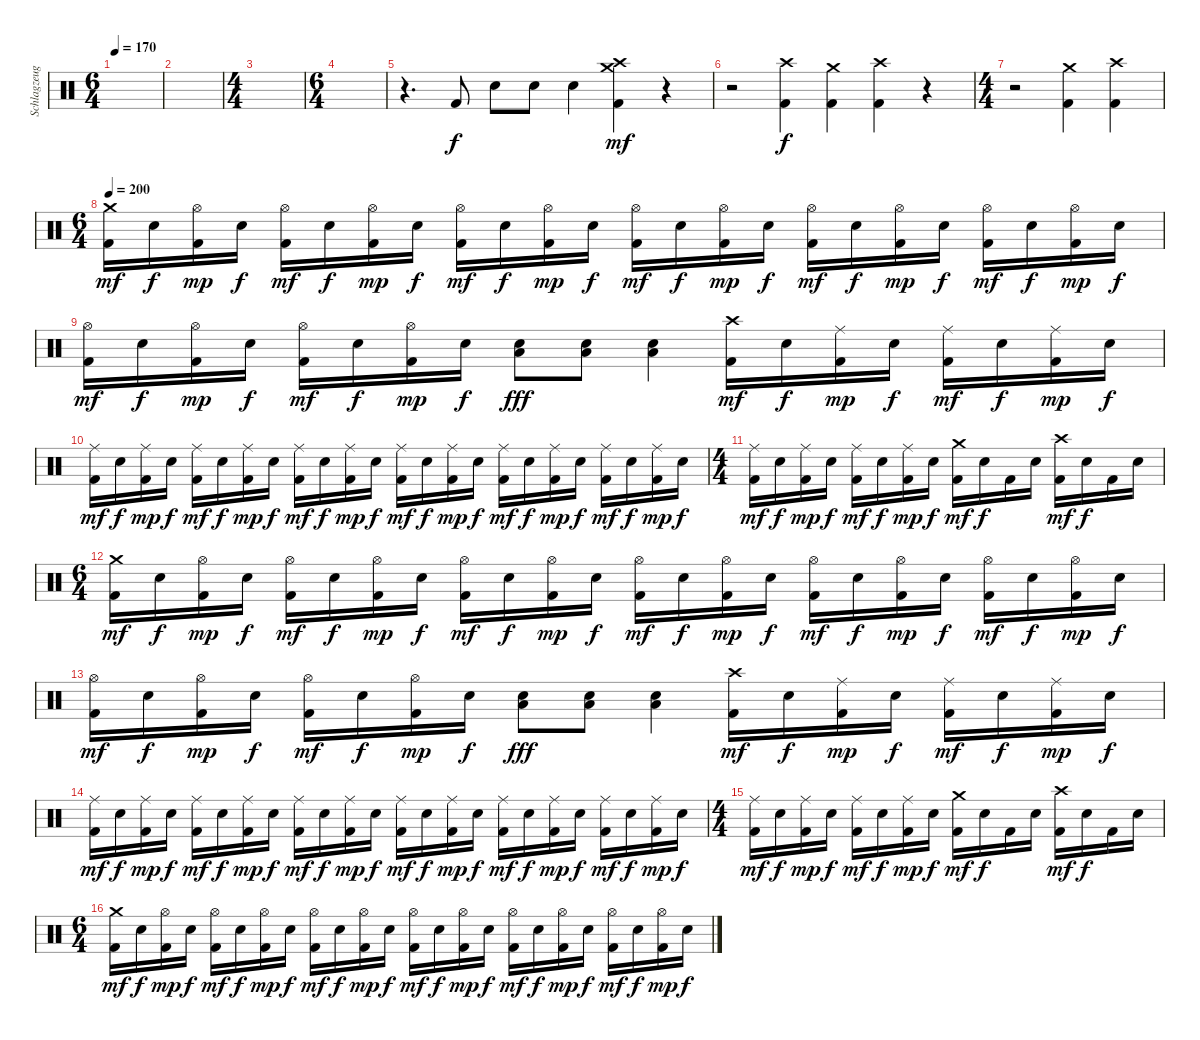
\track ("Schlagzeug" "Schlagzeug") {instrument percussion}
\staff {score}
\articulation defaults
\ts (6 4)
\tempo 170
\clef neutral
\ks c
|
|
\ts (4 4)
|
\ts (6 4)
|
r.4{d} "Kick (hit) 2".8 "Electric Snare (hit)".8 "Electric Snare (hit)".8 "Electric Snare (hit)".4 ("Crash medium (hit)" "Crash high (hit)" "Kick (hit) 2").4{dy mf} r.4 |
r.2 ("Crash high (hit)" "Kick (hit) 2").4{dy f} ("Crash medium (hit)" "Kick (hit) 2").4 ("Crash high (hit)" "Kick (hit) 2").4 r.4 |
\ts (4 4)
r.2 ("Crash medium (hit)" "Kick (hit) 2").4 ("Crash high (hit)" "Kick (hit) 2").4 |
\ts (6 4)
\tempo 200
("Crash medium (hit)" "Kick (hit) 2").16{dy mf} "Electric Snare (hit)".16{dy f} ("Hi-Hat (open)" "Kick (hit) 2").16{dy mp} "Electric Snare (hit)".16{dy f} ("Hi-Hat (open)" "Kick (hit) 2").16{dy mf} "Electric Snare (hit)".16{dy f} ("Hi-Hat (open)" "Kick (hit) 2").16{dy mp} "Electric Snare (hit)".16{dy f} ("Hi-Hat (open)" "Kick (hit) 2").16{dy mf} "Electric Snare (hit)".16{dy f} ("Hi-Hat (open)" "Kick (hit) 2").16{dy mp} "Electric Snare (hit)".16{dy f} ("Hi-Hat (open)" "Kick (hit) 2").16{dy mf} "Electric Snare (hit)".16{dy f} ("Hi-Hat (open)" "Kick (hit) 2").16{dy mp} "Electric Snare (hit)".16{dy f} ("Hi-Hat (open)" "Kick (hit) 2").16{dy mf} "Electric Snare (hit)".16{dy f} ("Hi-Hat (open)" "Kick (hit) 2").16{dy mp} "Electric Snare (hit)".16{dy f} ("Hi-Hat (open)" "Kick (hit) 2").16{dy mf} "Electric Snare (hit)".16{dy f} ("Hi-Hat (open)" "Kick (hit) 2").16{dy mp} "Electric Snare (hit)".16{dy f} |
("Hi-Hat (open)" "Kick (hit) 2").16{dy mf} "Electric Snare (hit)".16{dy f} ("Hi-Hat (open)" "Kick (hit) 2").16{dy mp} "Electric Snare (hit)".16{dy f} ("Hi-Hat (open)" "Kick (hit) 2").16{dy mf} "Electric Snare (hit)".16{dy f} ("Hi-Hat (open)" "Kick (hit) 2").16{dy mp} "Electric Snare (hit)".16{dy f} ("Electric Snare (hit)" "Low Tom (hit)").8{dy fff} ("Electric Snare (hit)" "Low Tom (hit)").8 ("Electric Snare (hit)" "Low Tom (hit)").4 ("Crash high (hit)" "Kick (hit) 2").16{dy mf} "Electric Snare (hit)".16{dy f} ("Ride (middle)" "Kick (hit) 2").16{dy mp} "Electric Snare (hit)".16{dy f} ("Ride (middle)" "Kick (hit) 2").16{dy mf} "Electric Snare (hit)".16{dy f} ("Ride (middle)" "Kick (hit) 2").16{dy mp} "Electric Snare (hit)".16{dy f} |
("Ride (middle)" "Kick (hit) 2").16{dy mf} "Electric Snare (hit)".16{dy f} ("Ride (middle)" "Kick (hit) 2").16{dy mp} "Electric Snare (hit)".16{dy f} ("Ride (middle)" "Kick (hit) 2").16{dy mf} "Electric Snare (hit)".16{dy f} ("Ride (middle)" "Kick (hit) 2").16{dy mp} "Electric Snare (hit)".16{dy f} ("Ride (middle)" "Kick (hit) 2").16{dy mf} "Electric Snare (hit)".16{dy f} ("Ride (middle)" "Kick (hit) 2").16{dy mp} "Electric Snare (hit)".16{dy f} ("Ride (middle)" "Kick (hit) 2").16{dy mf} "Electric Snare (hit)".16{dy f} ("Ride (middle)" "Kick (hit) 2").16{dy mp} "Electric Snare (hit)".16{dy f} ("Ride (middle)" "Kick (hit) 2").16{dy mf} "Electric Snare (hit)".16{dy f} ("Ride (middle)" "Kick (hit) 2").16{dy mp} "Electric Snare (hit)".16{dy f} ("Ride (middle)" "Kick (hit) 2").16{dy mf} "Electric Snare (hit)".16{dy f} ("Ride (middle)" "Kick (hit) 2").16{dy mp} "Electric Snare (hit)".16{dy f} |
\ts (4 4)
("Ride (middle)" "Kick (hit) 2").16{dy mf} "Electric Snare (hit)".16{dy f} ("Ride (middle)" "Kick (hit) 2").16{dy mp} "Electric Snare (hit)".16{dy f} ("Ride (middle)" "Kick (hit) 2").16{dy mf} "Electric Snare (hit)".16{dy f} ("Ride (middle)" "Kick (hit) 2").16{dy mp} "Electric Snare (hit)".16{dy f} ("Crash medium (hit)" "Kick (hit) 2").16{dy mf} "Electric Snare (hit)".16{dy f} "Kick (hit) 2".16 "Electric Snare (hit)".16 ("Crash high (hit)" "Kick (hit) 2").16{dy mf} "Electric Snare (hit)".16{dy f} "Kick (hit) 2".16 "Electric Snare (hit)".16 |
\ts (6 4)
("Crash medium (hit)" "Kick (hit) 2").16{dy mf} "Electric Snare (hit)".16{dy f} ("Hi-Hat (open)" "Kick (hit) 2").16{dy mp} "Electric Snare (hit)".16{dy f} ("Hi-Hat (open)" "Kick (hit) 2").16{dy mf} "Electric Snare (hit)".16{dy f} ("Hi-Hat (open)" "Kick (hit) 2").16{dy mp} "Electric Snare (hit)".16{dy f} ("Hi-Hat (open)" "Kick (hit) 2").16{dy mf} "Electric Snare (hit)".16{dy f} ("Hi-Hat (open)" "Kick (hit) 2").16{dy mp} "Electric Snare (hit)".16{dy f} ("Hi-Hat (open)" "Kick (hit) 2").16{dy mf} "Electric Snare (hit)".16{dy f} ("Hi-Hat (open)" "Kick (hit) 2").16{dy mp} "Electric Snare (hit)".16{dy f} ("Hi-Hat (open)" "Kick (hit) 2").16{dy mf} "Electric Snare (hit)".16{dy f} ("Hi-Hat (open)" "Kick (hit) 2").16{dy mp} "Electric Snare (hit)".16{dy f} ("Hi-Hat (open)" "Kick (hit) 2").16{dy mf} "Electric Snare (hit)".16{dy f} ("Hi-Hat (open)" "Kick (hit) 2").16{dy mp} "Electric Snare (hit)".16{dy f} |
("Hi-Hat (open)" "Kick (hit) 2").16{dy mf} "Electric Snare (hit)".16{dy f} ("Hi-Hat (open)" "Kick (hit) 2").16{dy mp} "Electric Snare (hit)".16{dy f} ("Hi-Hat (open)" "Kick (hit) 2").16{dy mf} "Electric Snare (hit)".16{dy f} ("Hi-Hat (open)" "Kick (hit) 2").16{dy mp} "Electric Snare (hit)".16{dy f} ("Electric Snare (hit)" "Low Tom (hit)").8{dy fff} ("Electric Snare (hit)" "Low Tom (hit)").8 ("Electric Snare (hit)" "Low Tom (hit)").4 ("Crash high (hit)" "Kick (hit) 2").16{dy mf} "Electric Snare (hit)".16{dy f} ("Ride (middle)" "Kick (hit) 2").16{dy mp} "Electric Snare (hit)".16{dy f} ("Ride (middle)" "Kick (hit) 2").16{dy mf} "Electric Snare (hit)".16{dy f} ("Ride (middle)" "Kick (hit) 2").16{dy mp} "Electric Snare (hit)".16{dy f} |
("Ride (middle)" "Kick (hit) 2").16{dy mf} "Electric Snare (hit)".16{dy f} ("Ride (middle)" "Kick (hit) 2").16{dy mp} "Electric Snare (hit)".16{dy f} ("Ride (middle)" "Kick (hit) 2").16{dy mf} "Electric Snare (hit)".16{dy f} ("Ride (middle)" "Kick (hit) 2").16{dy mp} "Electric Snare (hit)".16{dy f} ("Ride (middle)" "Kick (hit) 2").16{dy mf} "Electric Snare (hit)".16{dy f} ("Ride (middle)" "Kick (hit) 2").16{dy mp} "Electric Snare (hit)".16{dy f} ("Ride (middle)" "Kick (hit) 2").16{dy mf} "Electric Snare (hit)".16{dy f} ("Ride (middle)" "Kick (hit) 2").16{dy mp} "Electric Snare (hit)".16{dy f} ("Ride (middle)" "Kick (hit) 2").16{dy mf} "Electric Snare (hit)".16{dy f} ("Ride (middle)" "Kick (hit) 2").16{dy mp} "Electric Snare (hit)".16{dy f} ("Ride (middle)" "Kick (hit) 2").16{dy mf} "Electric Snare (hit)".16{dy f} ("Ride (middle)" "Kick (hit) 2").16{dy mp} "Electric Snare (hit)".16{dy f} |
\ts (4 4)
("Ride (middle)" "Kick (hit) 2").16{dy mf} "Electric Snare (hit)".16{dy f} ("Ride (middle)" "Kick (hit) 2").16{dy mp} "Electric Snare (hit)".16{dy f} ("Ride (middle)" "Kick (hit) 2").16{dy mf} "Electric Snare (hit)".16{dy f} ("Ride (middle)" "Kick (hit) 2").16{dy mp} "Electric Snare (hit)".16{dy f} ("Crash medium (hit)" "Kick (hit) 2").16{dy mf} "Electric Snare (hit)".16{dy f} "Kick (hit) 2".16 "Electric Snare (hit)".16 ("Crash high (hit)" "Kick (hit) 2").16{dy mf} "Electric Snare (hit)".16{dy f} "Kick (hit) 2".16 "Electric Snare (hit)".16 |
\ts (6 4)
("Crash medium (hit)" "Kick (hit) 2").16{dy mf} "Electric Snare (hit)".16{dy f} ("Hi-Hat (open)" "Kick (hit) 2").16{dy mp} "Electric Snare (hit)".16{dy f} ("Hi-Hat (open)" "Kick (hit) 2").16{dy mf} "Electric Snare (hit)".16{dy f} ("Hi-Hat (open)" "Kick (hit) 2").16{dy mp} "Electric Snare (hit)".16{dy f} ("Hi-Hat (open)" "Kick (hit) 2").16{dy mf} "Electric Snare (hit)".16{dy f} ("Hi-Hat (open)" "Kick (hit) 2").16{dy mp} "Electric Snare (hit)".16{dy f} ("Hi-Hat (open)" "Kick (hit) 2").16{dy mf} "Electric Snare (hit)".16{dy f} ("Hi-Hat (open)" "Kick (hit) 2").16{dy mp} "Electric Snare (hit)".16{dy f} ("Hi-Hat (open)" "Kick (hit) 2").16{dy mf} "Electric Snare (hit)".16{dy f} ("Hi-Hat (open)" "Kick (hit) 2").16{dy mp} "Electric Snare (hit)".16{dy f} ("Hi-Hat (open)" "Kick (hit) 2").16{dy mf} "Electric Snare (hit)".16{dy f} ("Hi-Hat (open)" "Kick (hit) 2").16{dy mp} "Electric Snare (hit)".16{dy f}
